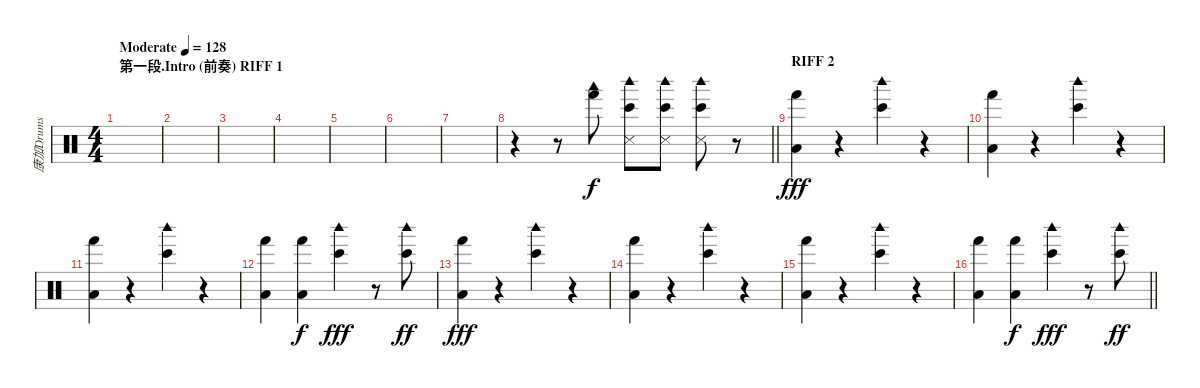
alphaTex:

\track ("康加Drums" "康加Drums") {instrument percussion}
\staff {score}
\articulation defaults
\ts (4 4)
\section ("" "第一段.Intro (前奏) RIFF 1")
\tempo (128 "Moderate")
\clef neutral
\ks c
|
|
|
|
|
|
|
\barLineRight lightlight
r.4 r.8 ("Hand (hit)" "Woodblock low (hit)").8 ("Bongo High (hit)" "Woodblock high (hit)" "Snare (side stick) 3").8 ("Bongo High (hit)" "Woodblock high (hit)" "Snare (side stick) 3").8 ("Bongo High (hit)" "Woodblock high (hit)" "Snare (side stick) 3").8 r.8 |
\section ("" "RIFF 2")
("Hand (hit)" "Low Floor Tom (hit)").4{dy fff} r.4 ("Bongo High (hit)" "Woodblock high (hit)").4 r.4 |
("Hand (hit)" "Low Floor Tom (hit)").4 r.4 ("Bongo High (hit)" "Woodblock high (hit)").4 r.4 |
("Hand (hit)" "Low Floor Tom (hit)").4 r.4 ("Bongo High (hit)" "Woodblock high (hit)").4 r.4 |
("Hand (hit)" "Low Floor Tom (hit)").4 ("Hand (hit)" "Low Floor Tom (hit)").4{dy f} ("Bongo High (hit)" "Woodblock high (hit)").4{dy fff} r.8 ("Bongo High (hit)" "Woodblock high (hit)").8{dy ff} |
("Hand (hit)" "Low Floor Tom (hit)").4{dy fff} r.4 ("Bongo High (hit)" "Woodblock high (hit)").4 r.4 |
("Hand (hit)" "Low Floor Tom (hit)").4 r.4 ("Bongo High (hit)" "Woodblock high (hit)").4 r.4 |
("Hand (hit)" "Low Floor Tom (hit)").4 r.4 ("Bongo High (hit)" "Woodblock high (hit)").4 r.4 |
\barLineRight lightlight
("Hand (hit)" "Low Floor Tom (hit)").4 ("Hand (hit)" "Low Floor Tom (hit)").4{dy f} ("Bongo High (hit)" "Woodblock high (hit)").4{dy fff} r.8 ("Bongo High (hit)" "Woodblock high (hit)").8{dy ff}
